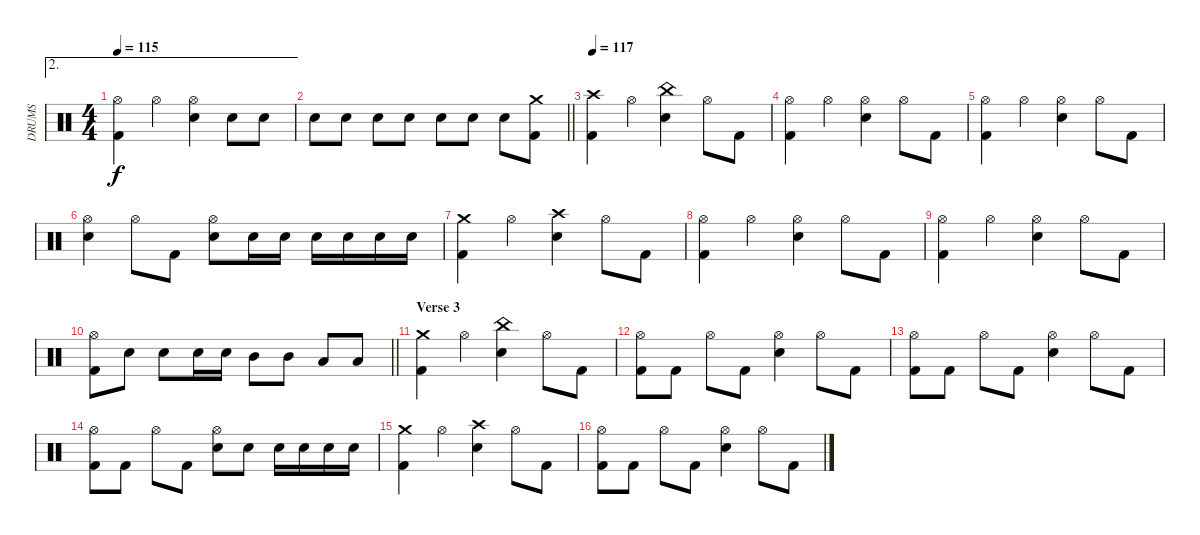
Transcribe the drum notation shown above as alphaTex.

\track ("DRUMS" "DRUMS") {instrument percussion}
\staff {score}
\articulation defaults
\ae 2
\ts (4 4)
\tempo 115
\clef neutral
\ks c
("Hi-Hat (open)" "Kick (hit) 2").4{dy f} "Hi-Hat (open)".4 ("Hi-Hat (open)" "Snare (hit) 2").4 "Snare (hit) 2".8 "Snare (hit) 2".8 |
\barLineRight lightlight "Snare (hit) 2".8 "Snare (hit) 2".8 "Snare (hit) 2".8 "Snare (hit) 2".8 "Snare (hit) 2".8 "Snare (hit) 2".8 "Snare (hit) 2".8
("Crash medium (hit)" "Kick (hit) 2").8 |
\tempo 117
("Crash high (hit)" "Kick (hit) 2").4 "Hi-Hat (open)".4 ("China (hit)" "Snare (hit) 2").4 "Hi-Hat (open)".8 "Kick (hit) 2".8 |
("Hi-Hat (open)" "Kick (hit) 2").4 "Hi-Hat (open)".4 ("Hi-Hat (open)" "Snare (hit) 2").4 "Hi-Hat (open)".8 "Kick (hit) 2".8 |
("Hi-Hat (open)" "Kick (hit) 2").4 "Hi-Hat (open)".4 ("Hi-Hat (open)" "Snare (hit) 2").4 "Hi-Hat (open)".8 "Kick (hit) 2".8 |
("Hi-Hat (open)" "Snare (hit) 2").4 "Hi-Hat (open)".8 "Kick (hit) 2".8 ("Hi-Hat (open)" "Snare (hit) 2").8 "Snare (hit) 2".16 "Snare (hit) 2".16 "Snare (hit) 2".16 "Snare (hit) 2".16 "Snare (hit) 2".16 "Snare (hit) 2".16 |
("Crash medium (hit)" "Kick (hit) 2").4 "Hi-Hat (open)".4 ("Crash high (hit)" "Snare (hit) 2").4 "Hi-Hat (open)".8 "Kick (hit) 2".8 |
("Hi-Hat (open)" "Kick (hit) 2").4 "Hi-Hat (open)".4 ("Hi-Hat (open)" "Snare (hit) 2").4 "Hi-Hat (open)".8 "Kick (hit) 2".8 |
("Hi-Hat (open)" "Kick (hit) 2").4 "Hi-Hat (open)".4 ("Hi-Hat (open)" "Snare (hit) 2").4 "Hi-Hat (open)".8 "Kick (hit) 2".8 |
\barLineRight lightlight
("Hi-Hat (open)" "Kick (hit) 2").8 "Snare (hit) 2".8 "Snare (hit) 2".8 "Snare (hit) 2".16 "Snare (hit) 2".16 "Mid Tom (hit)".8 "Mid Tom (hit)".8 "Low Tom (hit)".8 "Low Tom (hit)".8 |
\section ("" "Verse 3")
("Crash medium (hit)" "Kick (hit) 2").4 "Hi-Hat (open)".4 ("China (hit)" "Snare (hit) 2").4 "Hi-Hat (open)".8 "Kick (hit) 2".8 |
("Hi-Hat (open)" "Kick (hit) 2").8 "Kick (hit) 2".8 "Hi-Hat (open)".8 "Kick (hit) 2".8 ("Hi-Hat (open)" "Snare (hit) 2").4 "Hi-Hat (open)".8 "Kick (hit) 2".8 |
("Hi-Hat (open)" "Kick (hit) 2").8 "Kick (hit) 2".8 "Hi-Hat (open)".8 "Kick (hit) 2".8 ("Hi-Hat (open)" "Snare (hit) 2").4 "Hi-Hat (open)".8 "Kick (hit) 2".8 |
("Hi-Hat (open)" "Kick (hit) 2").8 "Kick (hit) 2".8 "Hi-Hat (open)".8 "Kick (hit) 2".8 ("Hi-Hat (open)" "Snare (hit) 2").8 "Snare (hit) 2".8 "Snare (hit) 2".16 "Snare (hit) 2".16 "Snare (hit) 2".16 "Snare (hit) 2".16 |
("Crash medium (hit)" "Kick (hit) 2").4 "Hi-Hat (open)".4 ("Crash high (hit)" "Snare (hit) 2").4 "Hi-Hat (open)".8 "Kick (hit) 2".8 |
("Hi-Hat (open)" "Kick (hit) 2").8 "Kick (hit) 2".8 "Hi-Hat (open)".8 "Kick (hit) 2".8 ("Hi-Hat (open)" "Snare (hit) 2").4 "Hi-Hat (open)".8 "Kick (hit) 2".8
